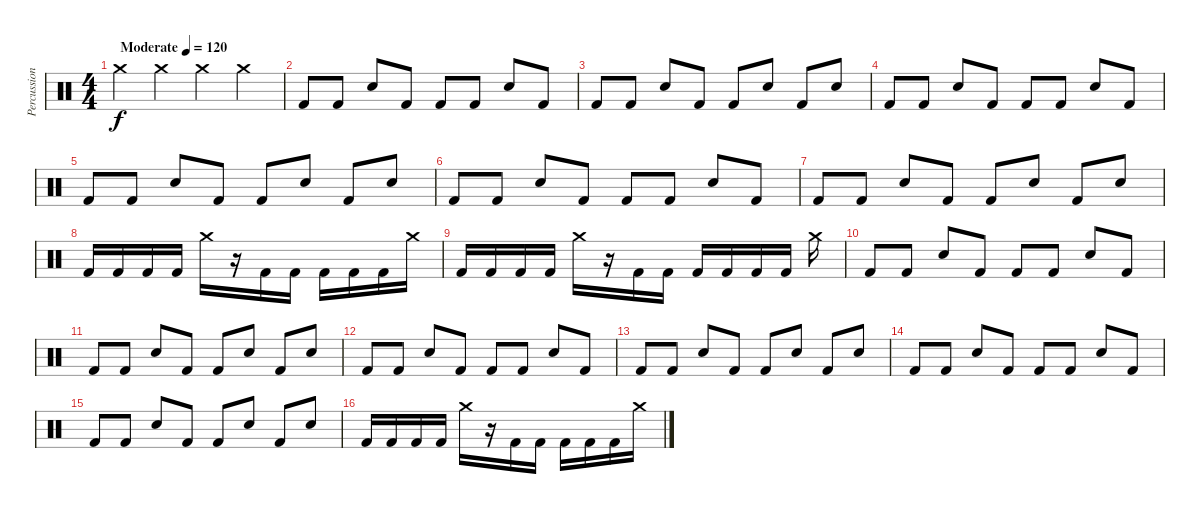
\track ("Percussion" "Percussion") {solo instrument percussion}
\staff {score}
\articulation defaults
\ts (4 4)
\tempo (120 "Moderate")
\clef neutral
\ks c "Crash medium (hit)".4{dy f} "Crash medium (hit)".4 "Crash medium (hit)".4 "Crash medium (hit)".4
|
"Kick (hit) 2".8 "Kick (hit) 2".8 "Snare (hit) 2".8 "Kick (hit) 2".8 "Kick (hit) 2".8 "Kick (hit) 2".8 "Snare (hit) 2".8 "Kick (hit) 2".8 |
"Kick (hit) 2".8 "Kick (hit) 2".8 "Snare (hit) 2".8 "Kick (hit) 2".8 "Kick (hit) 2".8 "Snare (hit) 2".8 "Kick (hit) 2".8 "Snare (hit) 2".8 |
"Kick (hit) 2".8 "Kick (hit) 2".8 "Snare (hit) 2".8 "Kick (hit) 2".8 "Kick (hit) 2".8 "Kick (hit) 2".8 "Snare (hit) 2".8 "Kick (hit) 2".8 |
"Kick (hit) 2".8 "Kick (hit) 2".8 "Snare (hit) 2".8 "Kick (hit) 2".8 "Kick (hit) 2".8 "Snare (hit) 2".8 "Kick (hit) 2".8 "Snare (hit) 2".8 |
"Kick (hit) 2".8 "Kick (hit) 2".8 "Snare (hit) 2".8 "Kick (hit) 2".8 "Kick (hit) 2".8 "Kick (hit) 2".8 "Snare (hit) 2".8 "Kick (hit) 2".8 |
"Kick (hit) 2".8 "Kick (hit) 2".8 "Snare (hit) 2".8 "Kick (hit) 2".8 "Kick (hit) 2".8 "Snare (hit) 2".8 "Kick (hit) 2".8 "Snare (hit) 2".8 |
"Kick (hit) 2".16 "Kick (hit) 2".16 "Kick (hit) 2".16 "Kick (hit) 2".16 "Crash medium (hit)".16 r.16 "Kick (hit) 2".16 "Kick (hit) 2".16 "Kick (hit) 2".16 "Kick (hit) 2".16 "Kick (hit) 2".16 "Crash medium (hit)".16 |
"Kick (hit) 2".16 "Kick (hit) 2".16 "Kick (hit) 2".16 "Kick (hit) 2".16 "Crash medium (hit)".16 r.16 "Kick (hit) 2".16 "Kick (hit) 2".16 "Kick (hit) 2".16 "Kick (hit) 2".16 "Kick (hit) 2".16 "Kick (hit) 2".16 "Crash medium (hit)".16 |
"Kick (hit) 2".8 "Kick (hit) 2".8 "Snare (hit) 2".8 "Kick (hit) 2".8 "Kick (hit) 2".8 "Kick (hit) 2".8 "Snare (hit) 2".8 "Kick (hit) 2".8 |
"Kick (hit) 2".8 "Kick (hit) 2".8 "Snare (hit) 2".8 "Kick (hit) 2".8 "Kick (hit) 2".8 "Snare (hit) 2".8 "Kick (hit) 2".8 "Snare (hit) 2".8 |
"Kick (hit) 2".8 "Kick (hit) 2".8 "Snare (hit) 2".8 "Kick (hit) 2".8 "Kick (hit) 2".8 "Kick (hit) 2".8 "Snare (hit) 2".8 "Kick (hit) 2".8 |
"Kick (hit) 2".8 "Kick (hit) 2".8 "Snare (hit) 2".8 "Kick (hit) 2".8 "Kick (hit) 2".8 "Snare (hit) 2".8 "Kick (hit) 2".8 "Snare (hit) 2".8 |
"Kick (hit) 2".8 "Kick (hit) 2".8 "Snare (hit) 2".8 "Kick (hit) 2".8 "Kick (hit) 2".8 "Kick (hit) 2".8 "Snare (hit) 2".8 "Kick (hit) 2".8 |
"Kick (hit) 2".8 "Kick (hit) 2".8 "Snare (hit) 2".8 "Kick (hit) 2".8 "Kick (hit) 2".8 "Snare (hit) 2".8 "Kick (hit) 2".8 "Snare (hit) 2".8 |
"Kick (hit) 2".16 "Kick (hit) 2".16 "Kick (hit) 2".16 "Kick (hit) 2".16 "Crash medium (hit)".16 r.16 "Kick (hit) 2".16 "Kick (hit) 2".16 "Kick (hit) 2".16 "Kick (hit) 2".16 "Kick (hit) 2".16 "Crash medium (hit)".16
